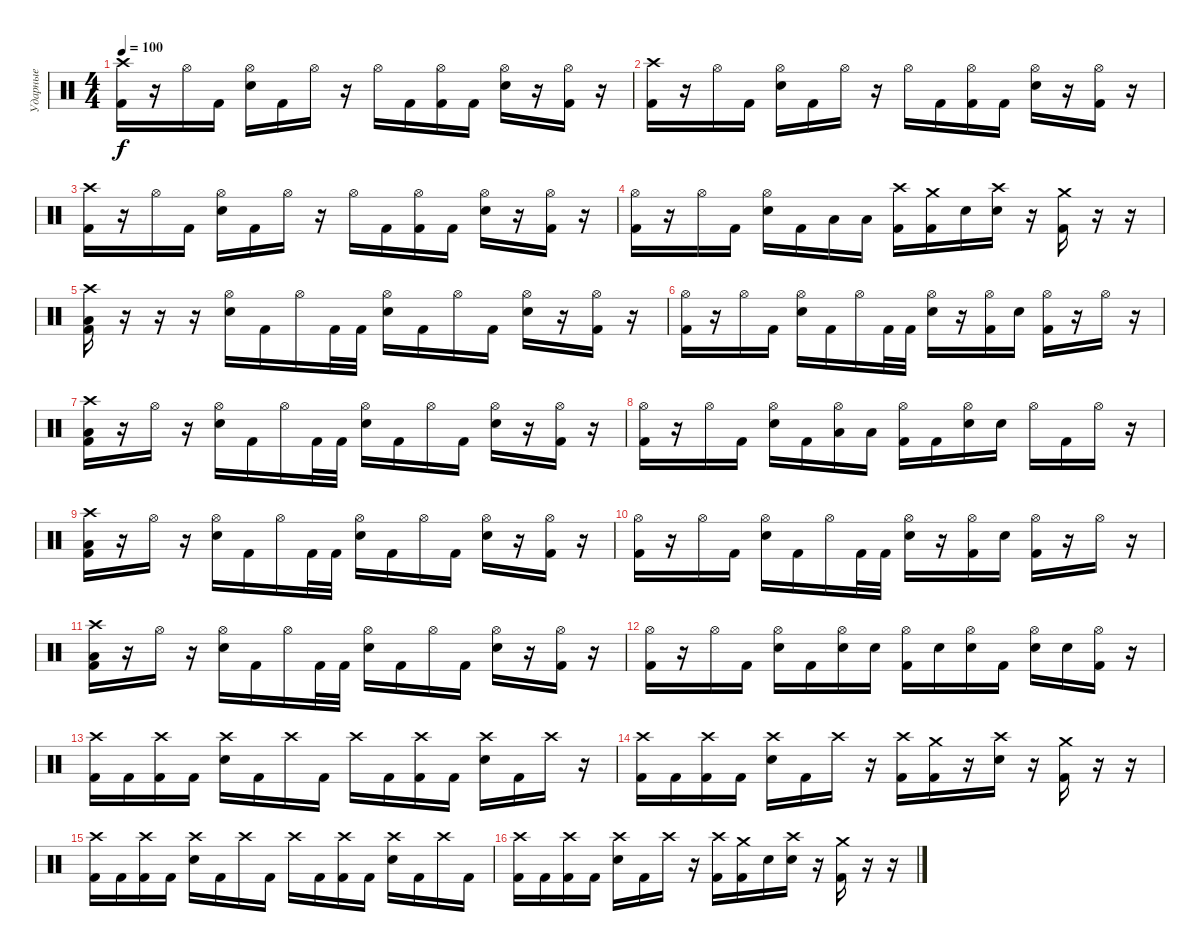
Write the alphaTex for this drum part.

\track ("Ударные" "Ударные") {instrument percussion}
\staff {score}
\articulation defaults
\ts (4 4)
\tempo 100
\clef neutral
\ks c
("Crash high (hit)" "Kick (hit) 2").16{dy f} r.16 "Hi-Hat (open)".16 "Kick (hit) 2".16 ("Hi-Hat (open)" "Electric Snare (hit)").16 "Kick (hit) 2".16 "Hi-Hat (open)".16 r.16 "Hi-Hat (open)".16 "Kick (hit) 2".16 ("Hi-Hat (open)" "Kick (hit) 2").16 "Kick (hit) 2".16 ("Hi-Hat (open)" "Electric Snare (hit)").16 r.16 ("Hi-Hat (open)" "Kick (hit) 2").16 r.16 |
("Crash high (hit)" "Kick (hit) 2").16 r.16 "Hi-Hat (open)".16 "Kick (hit) 2".16 ("Hi-Hat (open)" "Electric Snare (hit)").16 "Kick (hit) 2".16 "Hi-Hat (open)".16 r.16 "Hi-Hat (open)".16 "Kick (hit) 2".16 ("Hi-Hat (open)" "Kick (hit) 2").16 "Kick (hit) 2".16 ("Hi-Hat (open)" "Electric Snare (hit)").16 r.16 ("Hi-Hat (open)" "Kick (hit) 2").16 r.16 |
("Crash high (hit)" "Kick (hit) 2").16 r.16 "Hi-Hat (open)".16 "Kick (hit) 2".16 ("Hi-Hat (open)" "Electric Snare (hit)").16 "Kick (hit) 2".16 "Hi-Hat (open)".16 r.16 "Hi-Hat (open)".16 "Kick (hit) 2".16 ("Hi-Hat (open)" "Kick (hit) 2").16 "Kick (hit) 2".16 ("Hi-Hat (open)" "Electric Snare (hit)").16 r.16 ("Hi-Hat (open)" "Kick (hit) 2").16 r.16 |
("Hi-Hat (open)" "Kick (hit) 2").16 r.16 "Hi-Hat (open)".16 "Kick (hit) 2".16 ("Hi-Hat (open)" "Electric Snare (hit)").16 "Kick (hit) 2".16 "Low Floor Tom (hit)".16 "Low Floor Tom (hit)".16 ("Crash high (hit)" "Kick (hit) 2").16 ("Crash medium (hit)" "Kick (hit) 2").16 "Electric Snare (hit)".16 ("Crash high (hit)" "Electric Snare (hit)").16 r.16 ("Crash medium (hit)" "Kick (hit) 2").16 r.16 r.16 |
("Crash high (hit)" "Low Floor Tom (hit)" "Kick (hit) 2").16 r.16 r.16 r.16 ("Hi-Hat (open)" "Electric Snare (hit)").16 "Kick (hit) 2".16 "Hi-Hat (open)".16 "Kick (hit) 2".32 "Kick (hit) 2".32 ("Hi-Hat (open)" "Electric Snare (hit)").16 "Kick (hit) 2".16 "Hi-Hat (open)".16 "Kick (hit) 2".16 ("Hi-Hat (open)" "Electric Snare (hit)").16 r.16 ("Hi-Hat (open)" "Kick (hit) 2").16 r.16 |
("Hi-Hat (open)" "Kick (hit) 2").16 r.16 "Hi-Hat (open)".16 "Kick (hit) 2".16 ("Hi-Hat (open)" "Electric Snare (hit)").16 "Kick (hit) 2".16 "Hi-Hat (open)".16 "Kick (hit) 2".32 "Kick (hit) 2".32 ("Hi-Hat (open)" "Electric Snare (hit)").16 r.16 ("Hi-Hat (open)" "Kick (hit) 2").16 "Electric Snare (hit)".16 ("Hi-Hat (open)" "Kick (hit) 2").16 r.16 "Hi-Hat (open)".16 r.16 |
("Crash high (hit)" "Low Floor Tom (hit)" "Kick (hit) 2").16 r.16 "Hi-Hat (open)".16 r.16 ("Hi-Hat (open)" "Electric Snare (hit)").16 "Kick (hit) 2".16 "Hi-Hat (open)".16 "Kick (hit) 2".32 "Kick (hit) 2".32 ("Hi-Hat (open)" "Electric Snare (hit)").16 "Kick (hit) 2".16 "Hi-Hat (open)".16 "Kick (hit) 2".16 ("Hi-Hat (open)" "Electric Snare (hit)").16 r.16 ("Hi-Hat (open)" "Kick (hit) 2").16 r.16 |
("Hi-Hat (open)" "Kick (hit) 2").16 r.16 "Hi-Hat (open)".16 "Kick (hit) 2".16 ("Hi-Hat (open)" "Electric Snare (hit)").16 "Kick (hit) 2".16 ("Hi-Hat (open)" "Low Floor Tom (hit)").16 "Low Floor Tom (hit)".16 ("Hi-Hat (open)" "Kick (hit) 2").16 "Kick (hit) 2".16 ("Hi-Hat (open)" "Electric Snare (hit)").16 "Electric Snare (hit)".16 "Hi-Hat (open)".16 "Kick (hit) 2".16 "Hi-Hat (open)".16 r.16 |
("Crash high (hit)" "Low Floor Tom (hit)" "Kick (hit) 2").16 r.16 "Hi-Hat (open)".16 r.16 ("Hi-Hat (open)" "Electric Snare (hit)").16 "Kick (hit) 2".16 "Hi-Hat (open)".16 "Kick (hit) 2".32 "Kick (hit) 2".32 ("Hi-Hat (open)" "Electric Snare (hit)").16 "Kick (hit) 2".16 "Hi-Hat (open)".16 "Kick (hit) 2".16 ("Hi-Hat (open)" "Electric Snare (hit)").16 r.16 ("Hi-Hat (open)" "Kick (hit) 2").16 r.16 |
("Hi-Hat (open)" "Kick (hit) 2").16 r.16 "Hi-Hat (open)".16 "Kick (hit) 2".16 ("Hi-Hat (open)" "Electric Snare (hit)").16 "Kick (hit) 2".16 "Hi-Hat (open)".16 "Kick (hit) 2".32 "Kick (hit) 2".32 ("Hi-Hat (open)" "Electric Snare (hit)").16 r.16 ("Hi-Hat (open)" "Kick (hit) 2").16 "Electric Snare (hit)".16 ("Hi-Hat (open)" "Kick (hit) 2").16 r.16 "Hi-Hat (open)".16 r.16 |
("Crash high (hit)" "Low Floor Tom (hit)" "Kick (hit) 2").16 r.16 "Hi-Hat (open)".16 r.16 ("Hi-Hat (open)" "Electric Snare (hit)").16 "Kick (hit) 2".16 "Hi-Hat (open)".16 "Kick (hit) 2".32 "Kick (hit) 2".32 ("Hi-Hat (open)" "Electric Snare (hit)").16 "Kick (hit) 2".16 "Hi-Hat (open)".16 "Kick (hit) 2".16 ("Hi-Hat (open)" "Electric Snare (hit)").16 r.16 ("Hi-Hat (open)" "Kick (hit) 2").16 r.16 |
("Hi-Hat (open)" "Kick (hit) 2").16 r.16 "Hi-Hat (open)".16 "Kick (hit) 2".16 ("Hi-Hat (open)" "Electric Snare (hit)").16 "Kick (hit) 2".16 ("Hi-Hat (open)" "Electric Snare (hit)").16 "Electric Snare (hit)".16 ("Hi-Hat (open)" "Kick (hit) 2").16 "Electric Snare (hit)".16 ("Hi-Hat (open)" "Electric Snare (hit)").16 "Kick (hit) 2".16 ("Hi-Hat (open)" "Electric Snare (hit)").16 "Electric Snare (hit)".16 ("Hi-Hat (open)" "Kick (hit) 2").16 r.16 |
("Crash high (hit)" "Kick (hit) 2").16 "Kick (hit) 2".16 ("Crash high (hit)" "Kick (hit) 2").16 "Kick (hit) 2".16 ("Crash high (hit)" "Electric Snare (hit)").16 "Kick (hit) 2".16 "Crash high (hit)".16 "Kick (hit) 2".16 "Crash high (hit)".16 "Kick (hit) 2".16 ("Crash high (hit)" "Kick (hit) 2").16 "Kick (hit) 2".16 ("Crash high (hit)" "Electric Snare (hit)").16 "Kick (hit) 2".16 "Crash high (hit)".16 r.16 |
("Crash high (hit)" "Kick (hit) 2").16 "Kick (hit) 2".16 ("Crash high (hit)" "Kick (hit) 2").16 "Kick (hit) 2".16 ("Crash high (hit)" "Electric Snare (hit)").16 "Kick (hit) 2".16 "Crash high (hit)".16 r.16 ("Crash high (hit)" "Kick (hit) 2").16 ("Crash medium (hit)" "Kick (hit) 2").16 r.16 ("Crash high (hit)" "Electric Snare (hit)").16 r.16 ("Crash medium (hit)" "Kick (hit) 2").16 r.16 r.16 |
("Crash high (hit)" "Kick (hit) 2").16 "Kick (hit) 2".16 ("Crash high (hit)" "Kick (hit) 2").16 "Kick (hit) 2".16 ("Crash high (hit)" "Electric Snare (hit)").16 "Kick (hit) 2".16 "Crash high (hit)".16 "Kick (hit) 2".16 "Crash high (hit)".16 "Kick (hit) 2".16 ("Crash high (hit)" "Kick (hit) 2").16 "Kick (hit) 2".16 ("Crash high (hit)" "Electric Snare (hit)").16 "Kick (hit) 2".16 "Crash high (hit)".16 "Kick (hit) 2".16 |
("Crash high (hit)" "Kick (hit) 2").16 "Kick (hit) 2".16 ("Crash high (hit)" "Kick (hit) 2").16 "Kick (hit) 2".16 ("Crash high (hit)" "Electric Snare (hit)").16 "Kick (hit) 2".16 "Crash high (hit)".16 r.16 ("Crash high (hit)" "Kick (hit) 2").16 ("Crash medium (hit)" "Kick (hit) 2").16 "Electric Snare (hit)".16 ("Crash high (hit)" "Electric Snare (hit)").16 r.16 ("Crash medium (hit)" "Kick (hit) 2").16 r.16 r.16
